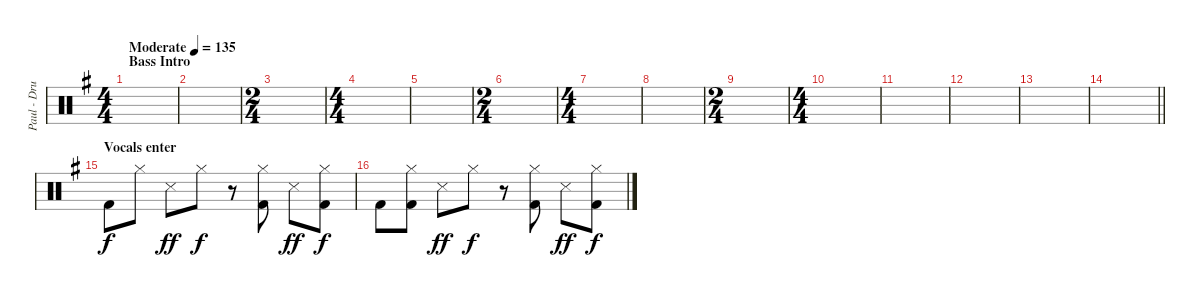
\track ("Paul - Drums" "Paul - Dru") {instrument percussion}
\staff {score}
\articulation defaults
\ts (4 4)
\section ("" "Bass Intro")
\tempo (135 "Moderate")
\clef neutral
\ks g
|
|
\ts (2 4)
|
\ts (4 4)
|
|
\ts (2 4)
|
\ts (4 4)
|
|
\ts (2 4)
|
\ts (4 4)
|
|
|
|
\barLineRight lightlight
|
\section ("" "Vocals enter")
"Kick (hit) 2".8 "Hi-Hat (closed)".8 "Snare (side stick) 3".8{dy ff} "Hi-Hat (closed)".8{dy f} r.8 ("Hi-Hat (closed)" "Kick (hit) 2").8 "Snare (side stick) 3".8{dy ff} ("Hi-Hat (closed)" "Kick (hit) 2").8{dy f} |
"Kick (hit) 2".8 ("Hi-Hat (closed)" "Kick (hit) 2").8 "Snare (side stick) 3".8{dy ff} "Hi-Hat (closed)".8{dy f} r.8 ("Hi-Hat (closed)" "Kick (hit) 2").8 "Snare (side stick) 3".8{dy ff} ("Hi-Hat (closed)" "Kick (hit) 2").8{dy f}
